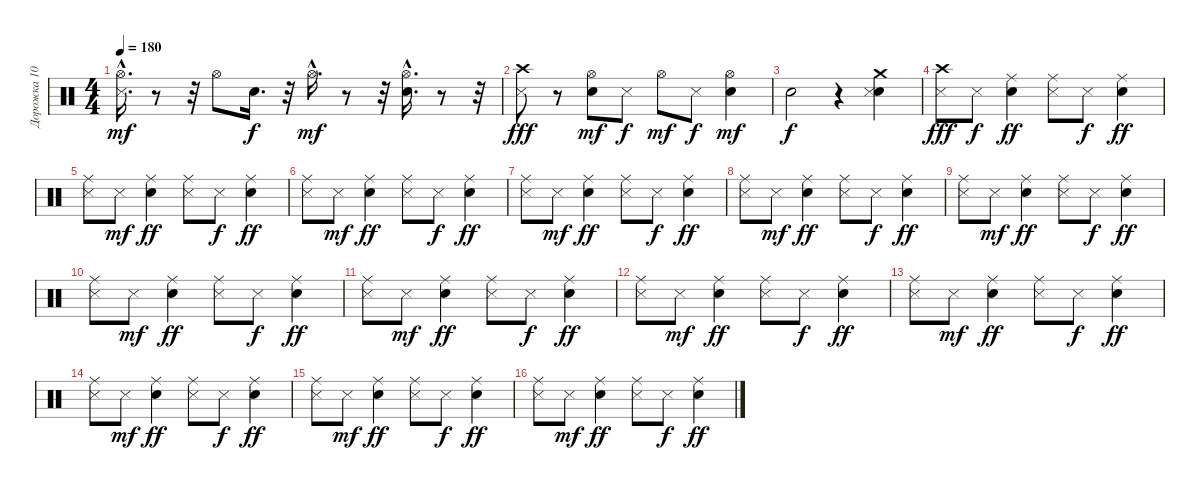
\track ("Дорожка 10" "Дорожка 10") {instrument percussion}
\staff {score}
\articulation defaults
\ts (4 4)
\tempo 180
\clef neutral
\ks c
("Hi-Hat (open)"{hac} "Metronome (hit)"{hac}).16{d dy mf} r.8 r.32 "Hi-Hat (open)".8 "Snare (hit) 2".16{d dy f} r.32 "Hi-Hat (open)"{hac}.16{d dy mf} r.8 r.32 ("Snare (hit) 2"{hac} "Hi-Hat (open)"{hac}).16{d} r.8 r.32 |
("Crash high (hit)" "Metronome (hit)").8{dy fff} r.8 ("Hi-Hat (open)" "Snare (hit) 2").8{dy mf} "Metronome (hit)".8{dy f} "Hi-Hat (open)".8{dy mf} "Metronome (hit)".8{dy f} ("Hi-Hat (open)" "Snare (hit) 2").4{dy mf} |
"Electric Snare (hit)".2{dy f} r.4 ("Snare (hit) 2" "Metronome (hit)" "Crash medium (hit)").4 |
("Metronome (hit)" "Crash high (hit)").8{dy fff} "Metronome (hit)".8{dy f} ("Snare (hit) 2" "Ride (middle)").4{dy ff} ("Metronome (hit)" "Ride (middle)").8 "Metronome (hit)".8{dy f} ("Snare (hit) 2" "Ride (middle)").4{dy ff} |
("Metronome (hit)" "Ride (middle)").8 "Metronome (hit)".8{dy mf} ("Snare (hit) 2" "Ride (middle)").4{dy ff} ("Metronome (hit)" "Ride (middle)").8 "Metronome (hit)".8{dy f} ("Snare (hit) 2" "Ride (middle)").4{dy ff} |
("Metronome (hit)" "Ride (middle)").8 "Metronome (hit)".8{dy mf} ("Snare (hit) 2" "Ride (middle)").4{dy ff} ("Metronome (hit)" "Ride (middle)").8 "Metronome (hit)".8{dy f} ("Snare (hit) 2" "Ride (middle)").4{dy ff} |
("Metronome (hit)" "Ride (middle)").8 "Metronome (hit)".8{dy mf} ("Snare (hit) 2" "Ride (middle)").4{dy ff} ("Metronome (hit)" "Ride (middle)").8 "Metronome (hit)".8{dy f} ("Snare (hit) 2" "Ride (middle)").4{dy ff} |
("Metronome (hit)" "Ride (middle)").8 "Metronome (hit)".8{dy mf} ("Snare (hit) 2" "Ride (middle)").4{dy ff} ("Metronome (hit)" "Ride (middle)").8 "Metronome (hit)".8{dy f} ("Snare (hit) 2" "Ride (middle)").4{dy ff} |
("Metronome (hit)" "Ride (middle)").8 "Metronome (hit)".8{dy mf} ("Snare (hit) 2" "Ride (middle)").4{dy ff} ("Metronome (hit)" "Ride (middle)").8 "Metronome (hit)".8{dy f} ("Snare (hit) 2" "Ride (middle)").4{dy ff} |
("Metronome (hit)" "Ride (middle)").8 "Metronome (hit)".8{dy mf} ("Snare (hit) 2" "Ride (middle)").4{dy ff} ("Metronome (hit)" "Ride (middle)").8 "Metronome (hit)".8{dy f} ("Snare (hit) 2" "Ride (middle)").4{dy ff} |
("Metronome (hit)" "Ride (middle)").8 "Metronome (hit)".8{dy mf} ("Snare (hit) 2" "Ride (middle)").4{dy ff} ("Metronome (hit)" "Ride (middle)").8 "Metronome (hit)".8{dy f} ("Snare (hit) 2" "Ride (middle)").4{dy ff} |
("Metronome (hit)" "Ride (middle)").8 "Metronome (hit)".8{dy mf} ("Snare (hit) 2" "Ride (middle)").4{dy ff} ("Metronome (hit)" "Ride (middle)").8 "Metronome (hit)".8{dy f} ("Snare (hit) 2" "Ride (middle)").4{dy ff} |
("Metronome (hit)" "Ride (middle)").8 "Metronome (hit)".8{dy mf} ("Snare (hit) 2" "Ride (middle)").4{dy ff} ("Metronome (hit)" "Ride (middle)").8 "Metronome (hit)".8{dy f} ("Snare (hit) 2" "Ride (middle)").4{dy ff} |
("Metronome (hit)" "Ride (middle)").8 "Metronome (hit)".8{dy mf} ("Snare (hit) 2" "Ride (middle)").4{dy ff} ("Metronome (hit)" "Ride (middle)").8 "Metronome (hit)".8{dy f} ("Snare (hit) 2" "Ride (middle)").4{dy ff} |
("Metronome (hit)" "Ride (middle)").8 "Metronome (hit)".8{dy mf} ("Snare (hit) 2" "Ride (middle)").4{dy ff} ("Metronome (hit)" "Ride (middle)").8 "Metronome (hit)".8{dy f} ("Snare (hit) 2" "Ride (middle)").4{dy ff} |
("Metronome (hit)" "Ride (middle)").8 "Metronome (hit)".8{dy mf} ("Snare (hit) 2" "Ride (middle)").4{dy ff} ("Metronome (hit)" "Ride (middle)").8 "Metronome (hit)".8{dy f} ("Snare (hit) 2" "Ride (middle)").4{dy ff}
